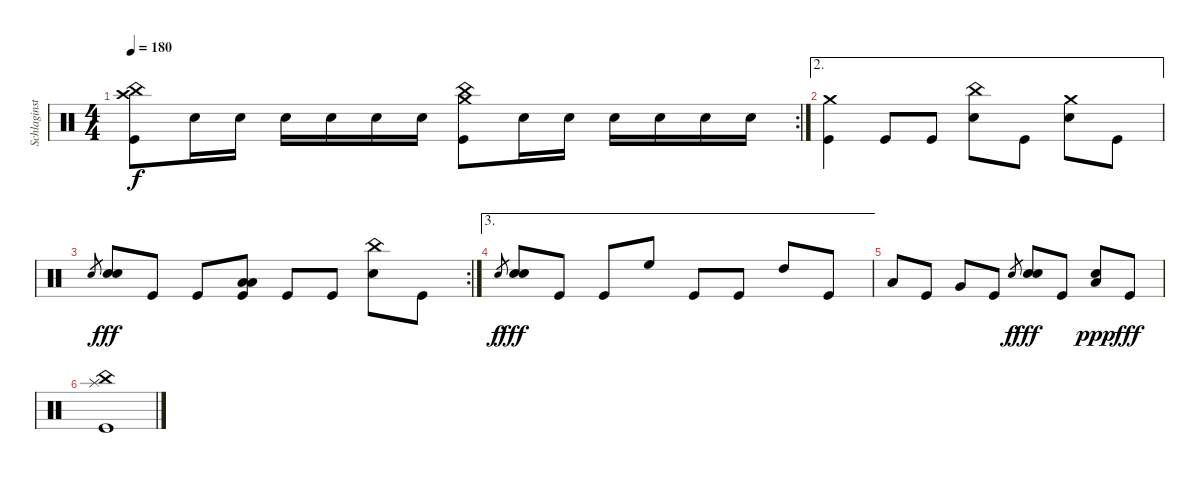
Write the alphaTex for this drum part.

\track ("Schlaginstrumente - Auswahl" "Schlaginst") {instrument percussion}
\staff {score}
\articulation defaults
\rc 2
\ts (4 4)
\tempo 180
\clef neutral
\ks c
("Crash high (hit)" "Kick (hit)" "China (hit)").8{dy f} "Snare (hit) 2".16 "Snare (hit) 2".16 "Snare (hit) 2".16 "Snare (hit) 2".16 "Snare (hit) 2".16 "Snare (hit) 2".16 ("Kick (hit)" "Crash medium (hit)" "China (hit)").8 "Snare (hit) 2".16 "Snare (hit) 2".16 "Snare (hit) 2".16 "Snare (hit) 2".16 "Snare (hit) 2".16 "Snare (hit) 2".16 |
\ae 2
("Crash medium (hit)" "Kick (hit)").4 "Kick (hit)".8 "Kick (hit)".8 ("Snare (hit) 2" "China (hit)").8 "Kick (hit)".8 ("Crash medium (hit)" "Snare (hit) 2").8 "Kick (hit)".8 |
\rc 2 "Electric Snare (hit)".8{gr}
("Snare (hit) 2" "Electric Snare (hit)").8{dy fff} "Kick (hit)".8 "Kick (hit)".8 ("Kick (hit)" "Low Floor Tom (hit)" "Low Tom (hit)").8 "Kick (hit)".8 "Kick (hit)".8 ("Snare (hit) 2" "China (hit)").8 "Kick (hit)".8 |
\ae 3 "Electric Snare (hit)".8{gr dy f}
("Snare (hit) 2" "Electric Snare (hit)").8{dy fff} "Kick (hit)".8 "Kick (hit)".8 "High Floor Tom (hit)".8 "Kick (hit)".8 "Kick (hit)".8 "High Tom (hit)".8 "Kick (hit)".8 |
"Low Tom (hit)".8 "Kick (hit)".8 "Very Low Tom (hit)".8 "Kick (hit)".8 "Electric Snare (hit)".8{gr dy f} ("Snare (hit) 2" "Electric Snare (hit)").8{dy fff} "Kick (hit)".8 ("Snare (hit) 2" "Low Tom (hit)").8{dy ppp} "Kick (hit)".8{dy fff} |
("Kick (hit)" "China (hit)" "Splash (hit)").1
